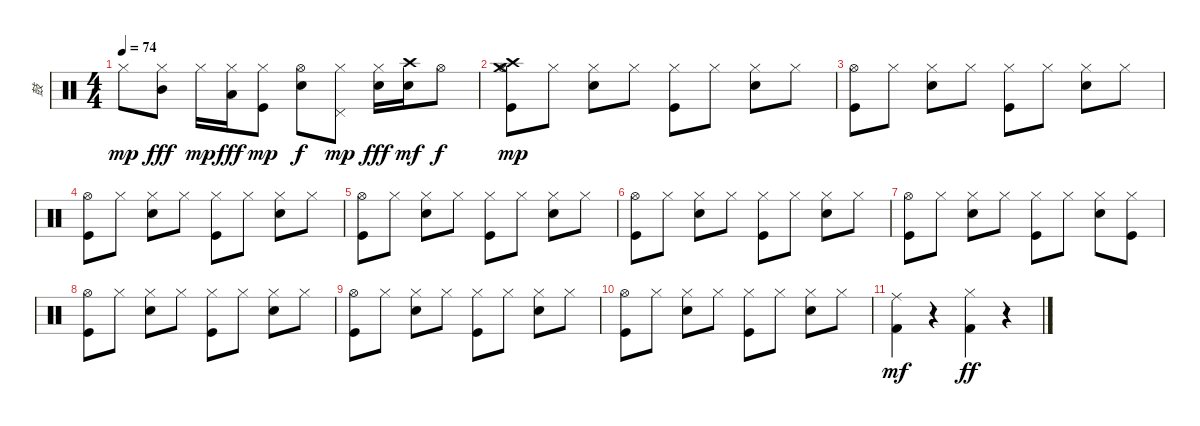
\track ("鼓" "鼓") {instrument percussion}
\staff {score}
\articulation defaults
\ts (4 4)
\tempo 74
\clef neutral
\ks c "Hi-Hat (closed)".8{dy mp}
("Hi-Hat (closed)" "Mid Tom (hit)").8{dy fff} "Hi-Hat (closed)".16{dy mp} ("Hi-Hat (closed)" "Low Tom (hit)").16{dy fff} ("Kick (hit)" "Hi-Hat (closed)").8{dy mp} ("Electric Snare (hit)" "Hi-Hat (open)").8{dy f} ("Hi-Hat (closed)" "Pedal Hi-Hat (hit)").8{dy mp} ("Electric Snare (hit)" "Hi-Hat (closed)").16{dy fff} ("Electric Snare (hit)" "Crash high (hit)").16{dy mf} "Hi-Hat (open)".8{dy f} |
("Kick (hit)" "Hi-Hat (open)" "Crash medium (hit)" "Crash high (hit)").8{dy mp} "Hi-Hat (closed)".8 ("Electric Snare (hit)" "Hi-Hat (closed)").8 "Hi-Hat (closed)".8 ("Kick (hit)" "Hi-Hat (closed)").8 "Hi-Hat (closed)".8 ("Electric Snare (hit)" "Hi-Hat (closed)").8 "Hi-Hat (closed)".8 |
("Kick (hit)" "Hi-Hat (open)").8 "Hi-Hat (closed)".8 ("Electric Snare (hit)" "Hi-Hat (closed)").8 "Hi-Hat (closed)".8 ("Kick (hit)" "Hi-Hat (closed)").8 "Hi-Hat (closed)".8 ("Electric Snare (hit)" "Hi-Hat (closed)").8 "Hi-Hat (closed)".8 |
("Kick (hit)" "Hi-Hat (open)").8 "Hi-Hat (closed)".8 ("Electric Snare (hit)" "Hi-Hat (closed)").8 "Hi-Hat (closed)".8 ("Kick (hit)" "Hi-Hat (closed)").8 "Hi-Hat (closed)".8 ("Electric Snare (hit)" "Hi-Hat (closed)").8 "Hi-Hat (closed)".8 |
("Kick (hit)" "Hi-Hat (open)").8 "Hi-Hat (closed)".8 ("Electric Snare (hit)" "Hi-Hat (closed)").8 "Hi-Hat (closed)".8 ("Kick (hit)" "Hi-Hat (closed)").8 "Hi-Hat (closed)".8 ("Electric Snare (hit)" "Hi-Hat (closed)").8 "Hi-Hat (closed)".8 |
("Kick (hit)" "Hi-Hat (open)").8 "Hi-Hat (closed)".8 ("Electric Snare (hit)" "Hi-Hat (closed)").8 "Hi-Hat (closed)".8 ("Kick (hit)" "Hi-Hat (closed)").8 "Hi-Hat (closed)".8 ("Electric Snare (hit)" "Hi-Hat (closed)").8 "Hi-Hat (closed)".8 |
("Kick (hit)" "Hi-Hat (open)").8{volume 14} "Hi-Hat (closed)".8{volume 14} ("Electric Snare (hit)" "Hi-Hat (closed)").8{volume 13} "Hi-Hat (closed)".8{volume 13} ("Kick (hit)" "Hi-Hat (closed)").8{volume 12} "Hi-Hat (closed)".8{volume 12} ("Electric Snare (hit)" "Hi-Hat (closed)").8{volume 12} ("Kick (hit)" "Hi-Hat (closed)").8{volume 11} |
("Kick (hit)" "Hi-Hat (open)").8{volume 8} "Hi-Hat (closed)".8{volume 8} ("Electric Snare (hit)" "Hi-Hat (closed)").8{volume 8} "Hi-Hat (closed)".8{volume 8} ("Kick (hit)" "Hi-Hat (closed)").8{volume 8} "Hi-Hat (closed)".8{volume 7} ("Electric Snare (hit)" "Hi-Hat (closed)").8{volume 7} "Hi-Hat (closed)".8{volume 7} |
("Kick (hit)" "Hi-Hat (open)").8{volume 6} "Hi-Hat (closed)".8{volume 6} ("Electric Snare (hit)" "Hi-Hat (closed)").8{volume 6} "Hi-Hat (closed)".8{volume 6} ("Kick (hit)" "Hi-Hat (closed)").8{volume 6} "Hi-Hat (closed)".8{volume 5} ("Electric Snare (hit)" "Hi-Hat (closed)").8{volume 5} "Hi-Hat (closed)".8{volume 5} |
("Kick (hit)" "Hi-Hat (open)").8{volume 5} "Hi-Hat (closed)".8{volume 5} ("Electric Snare (hit)" "Hi-Hat (closed)").8{volume 5} "Hi-Hat (closed)".8{volume 5} ("Kick (hit)" "Hi-Hat (closed)").8{volume 4} "Hi-Hat (closed)".8{volume 4} ("Electric Snare (hit)" "Hi-Hat (closed)").8{volume 4} "Hi-Hat (closed)".8{volume 4} |
("Kick (hit) 2" "Ride (middle)").4{dy mf volume 4} r.4 ("Kick (hit) 2" "Hi-Hat (closed)").4{dy ff} r.4
